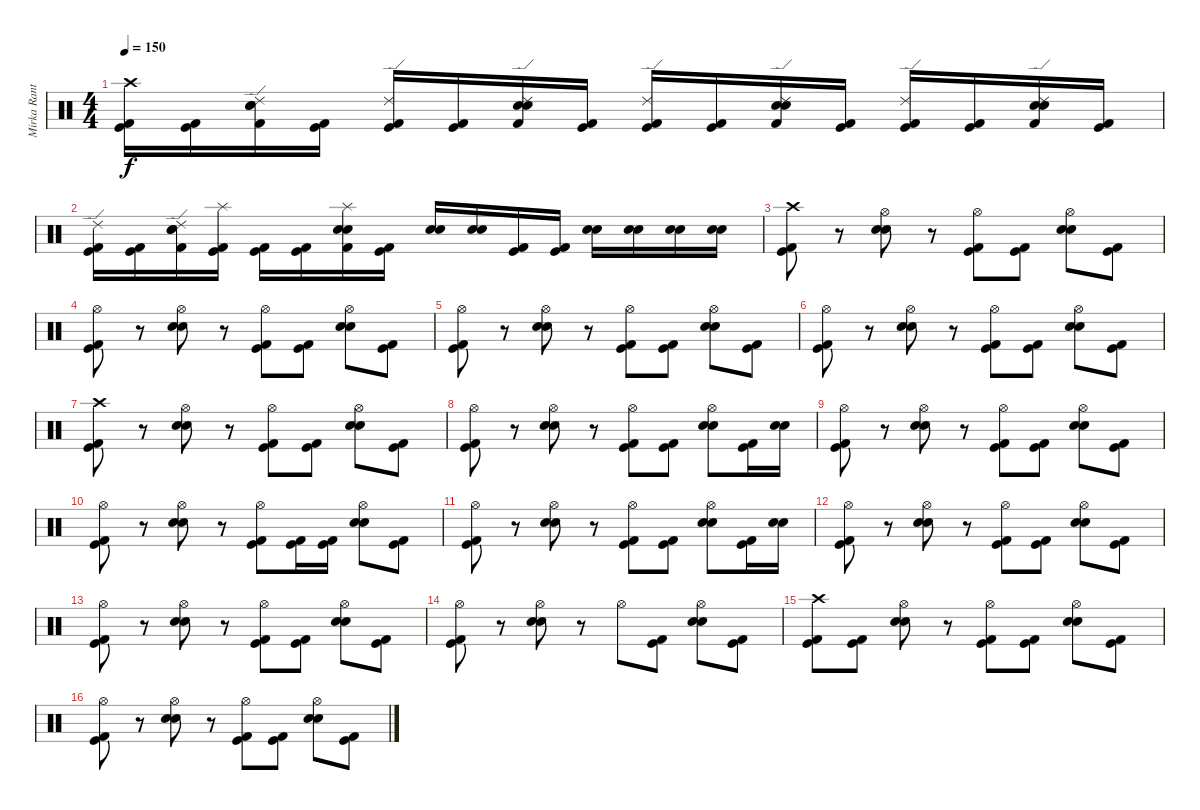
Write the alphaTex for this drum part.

\track ("Mirka Rantanen" "Mirka Rant") {instrument percussion}
\staff {score}
\articulation defaults
\ts (4 4)
\tempo 150
\clef neutral
\ks c
("Crash high (hit)" "Kick (hit)" "Kick (hit) 2").16{dy f} ("Kick (hit)" "Kick (hit) 2").16 ("Ride (edge) 2" "Kick (hit) 2" "Electric Snare (hit)" "Snare (hit) 2").16 ("Kick (hit)" "Kick (hit) 2").16 ("Ride (edge) 2" "Kick (hit)" "Kick (hit) 2").16 ("Kick (hit)" "Kick (hit) 2").16 ("Ride (edge) 2" "Kick (hit) 2" "Electric Snare (hit)" "Snare (hit) 2").16 ("Kick (hit)" "Kick (hit) 2").16 ("Ride (edge) 2" "Kick (hit)" "Kick (hit) 2").16 ("Kick (hit)" "Kick (hit) 2").16 ("Ride (edge) 2" "Kick (hit) 2" "Electric Snare (hit)" "Snare (hit) 2").16 ("Kick (hit)" "Kick (hit) 2").16 ("Ride (edge) 2" "Kick (hit)" "Kick (hit) 2").16 ("Kick (hit)" "Kick (hit) 2").16 ("Ride (edge) 2" "Kick (hit) 2" "Electric Snare (hit)" "Snare (hit) 2").16 ("Kick (hit)" "Kick (hit) 2").16 |
("Ride (edge) 2" "Kick (hit)" "Kick (hit) 2").16 ("Kick (hit)" "Kick (hit) 2").16 ("Ride (edge) 2" "Kick (hit) 2" "Electric Snare (hit)" "Snare (hit) 2").16 ("Splash (hit)" "Kick (hit)" "Kick (hit) 2").16 ("Kick (hit)" "Kick (hit) 2").16 ("Kick (hit)" "Kick (hit) 2").16 ("Splash (hit)" "Kick (hit) 2" "Electric Snare (hit)" "Snare (hit) 2").16 ("Kick (hit)" "Kick (hit) 2").16 ("Electric Snare (hit)" "Snare (hit) 2").16 ("Electric Snare (hit)" "Snare (hit) 2").16 ("Kick (hit)" "Kick (hit) 2").16 ("Kick (hit)" "Kick (hit) 2").16 ("Electric Snare (hit)" "Snare (hit) 2").16 ("Electric Snare (hit)" "Snare (hit) 2").16 ("Electric Snare (hit)" "Snare (hit) 2").16 ("Electric Snare (hit)" "Snare (hit) 2").16 |
("Crash high (hit)" "Kick (hit)" "Kick (hit) 2").8 r.8 ("Hi-Hat (open)" "Electric Snare (hit)" "Snare (hit) 2").8 r.8 ("Hi-Hat (open)" "Kick (hit)" "Kick (hit) 2").8 ("Kick (hit)" "Kick (hit) 2").8 ("Hi-Hat (open)" "Electric Snare (hit)" "Snare (hit) 2").8 ("Kick (hit)" "Kick (hit) 2").8 |
("Hi-Hat (open)" "Kick (hit)" "Kick (hit) 2").8 r.8 ("Hi-Hat (open)" "Electric Snare (hit)" "Snare (hit) 2").8 r.8 ("Hi-Hat (open)" "Kick (hit)" "Kick (hit) 2").8 ("Kick (hit)" "Kick (hit) 2").8 ("Hi-Hat (open)" "Electric Snare (hit)" "Snare (hit) 2").8 ("Kick (hit)" "Kick (hit) 2").8 |
("Hi-Hat (open)" "Kick (hit)" "Kick (hit) 2").8 r.8 ("Hi-Hat (open)" "Electric Snare (hit)" "Snare (hit) 2").8 r.8 ("Hi-Hat (open)" "Kick (hit)" "Kick (hit) 2").8 ("Kick (hit)" "Kick (hit) 2").8 ("Hi-Hat (open)" "Electric Snare (hit)" "Snare (hit) 2").8 ("Kick (hit)" "Kick (hit) 2").8 |
("Hi-Hat (open)" "Kick (hit)" "Kick (hit) 2").8 r.8 ("Hi-Hat (open)" "Electric Snare (hit)" "Snare (hit) 2").8 r.8 ("Hi-Hat (open)" "Kick (hit)" "Kick (hit) 2").8 ("Kick (hit)" "Kick (hit) 2").8 ("Hi-Hat (open)" "Electric Snare (hit)" "Snare (hit) 2").8 ("Kick (hit)" "Kick (hit) 2").8 |
("Crash high (hit)" "Kick (hit)" "Kick (hit) 2").8 r.8 ("Hi-Hat (open)" "Electric Snare (hit)" "Snare (hit) 2").8 r.8 ("Hi-Hat (open)" "Kick (hit)" "Kick (hit) 2").8 ("Kick (hit)" "Kick (hit) 2").8 ("Hi-Hat (open)" "Electric Snare (hit)" "Snare (hit) 2").8 ("Kick (hit)" "Kick (hit) 2").8 |
("Hi-Hat (open)" "Kick (hit)" "Kick (hit) 2").8 r.8 ("Hi-Hat (open)" "Electric Snare (hit)" "Snare (hit) 2").8 r.8 ("Hi-Hat (open)" "Kick (hit)" "Kick (hit) 2").8 ("Kick (hit)" "Kick (hit) 2").8 ("Hi-Hat (open)" "Electric Snare (hit)" "Snare (hit) 2").8 ("Kick (hit)" "Kick (hit) 2").16 ("Electric Snare (hit)" "Snare (hit) 2").16 |
("Hi-Hat (open)" "Kick (hit)" "Kick (hit) 2").8 r.8 ("Hi-Hat (open)" "Electric Snare (hit)" "Snare (hit) 2").8 r.8 ("Hi-Hat (open)" "Kick (hit)" "Kick (hit) 2").8 ("Kick (hit)" "Kick (hit) 2").8 ("Hi-Hat (open)" "Electric Snare (hit)" "Snare (hit) 2").8 ("Kick (hit)" "Kick (hit) 2").8 |
("Hi-Hat (open)" "Kick (hit)" "Kick (hit) 2").8 r.8 ("Hi-Hat (open)" "Electric Snare (hit)" "Snare (hit) 2").8 r.8 ("Hi-Hat (open)" "Kick (hit)" "Kick (hit) 2").8 ("Kick (hit)" "Kick (hit) 2").16 ("Kick (hit)" "Kick (hit) 2").16 ("Hi-Hat (open)" "Electric Snare (hit)" "Snare (hit) 2").8 ("Kick (hit)" "Kick (hit) 2").8 |
("Hi-Hat (open)" "Kick (hit)" "Kick (hit) 2").8 r.8 ("Hi-Hat (open)" "Electric Snare (hit)" "Snare (hit) 2").8 r.8 ("Hi-Hat (open)" "Kick (hit)" "Kick (hit) 2").8 ("Kick (hit)" "Kick (hit) 2").8 ("Hi-Hat (open)" "Electric Snare (hit)" "Snare (hit) 2").8 ("Kick (hit)" "Kick (hit) 2").16 ("Electric Snare (hit)" "Snare (hit) 2").16 |
("Hi-Hat (open)" "Kick (hit)" "Kick (hit) 2").8 r.8 ("Hi-Hat (open)" "Electric Snare (hit)" "Snare (hit) 2").8 r.8 ("Hi-Hat (open)" "Kick (hit)" "Kick (hit) 2").8 ("Kick (hit)" "Kick (hit) 2").8 ("Hi-Hat (open)" "Electric Snare (hit)" "Snare (hit) 2").8 ("Kick (hit)" "Kick (hit) 2").8 |
("Hi-Hat (open)" "Kick (hit)" "Kick (hit) 2").8 r.8 ("Hi-Hat (open)" "Electric Snare (hit)" "Snare (hit) 2").8 r.8 ("Hi-Hat (open)" "Kick (hit)" "Kick (hit) 2").8 ("Kick (hit)" "Kick (hit) 2").8 ("Hi-Hat (open)" "Electric Snare (hit)" "Snare (hit) 2").8 ("Kick (hit)" "Kick (hit) 2").8 |
("Hi-Hat (open)" "Kick (hit)" "Kick (hit) 2").8 r.8 ("Hi-Hat (open)" "Electric Snare (hit)" "Snare (hit) 2").8 r.8 "Hi-Hat (open)".8 ("Kick (hit)" "Kick (hit) 2").8 ("Hi-Hat (open)" "Electric Snare (hit)" "Snare (hit) 2").8 ("Kick (hit)" "Kick (hit) 2").8 |
("Crash high (hit)" "Kick (hit)" "Kick (hit) 2").8 ("Kick (hit)" "Kick (hit) 2").8 ("Hi-Hat (open)" "Electric Snare (hit)" "Snare (hit) 2").8 r.8 ("Hi-Hat (open)" "Kick (hit)" "Kick (hit) 2").8 ("Kick (hit)" "Kick (hit) 2").8 ("Hi-Hat (open)" "Electric Snare (hit)" "Snare (hit) 2").8 ("Kick (hit)" "Kick (hit) 2").8 |
("Hi-Hat (open)" "Kick (hit)" "Kick (hit) 2").8 r.8 ("Hi-Hat (open)" "Electric Snare (hit)" "Snare (hit) 2").8 r.8 ("Hi-Hat (open)" "Kick (hit)" "Kick (hit) 2").8 ("Kick (hit)" "Kick (hit) 2").8 ("Hi-Hat (open)" "Electric Snare (hit)" "Snare (hit) 2").8 ("Kick (hit)" "Kick (hit) 2").8
